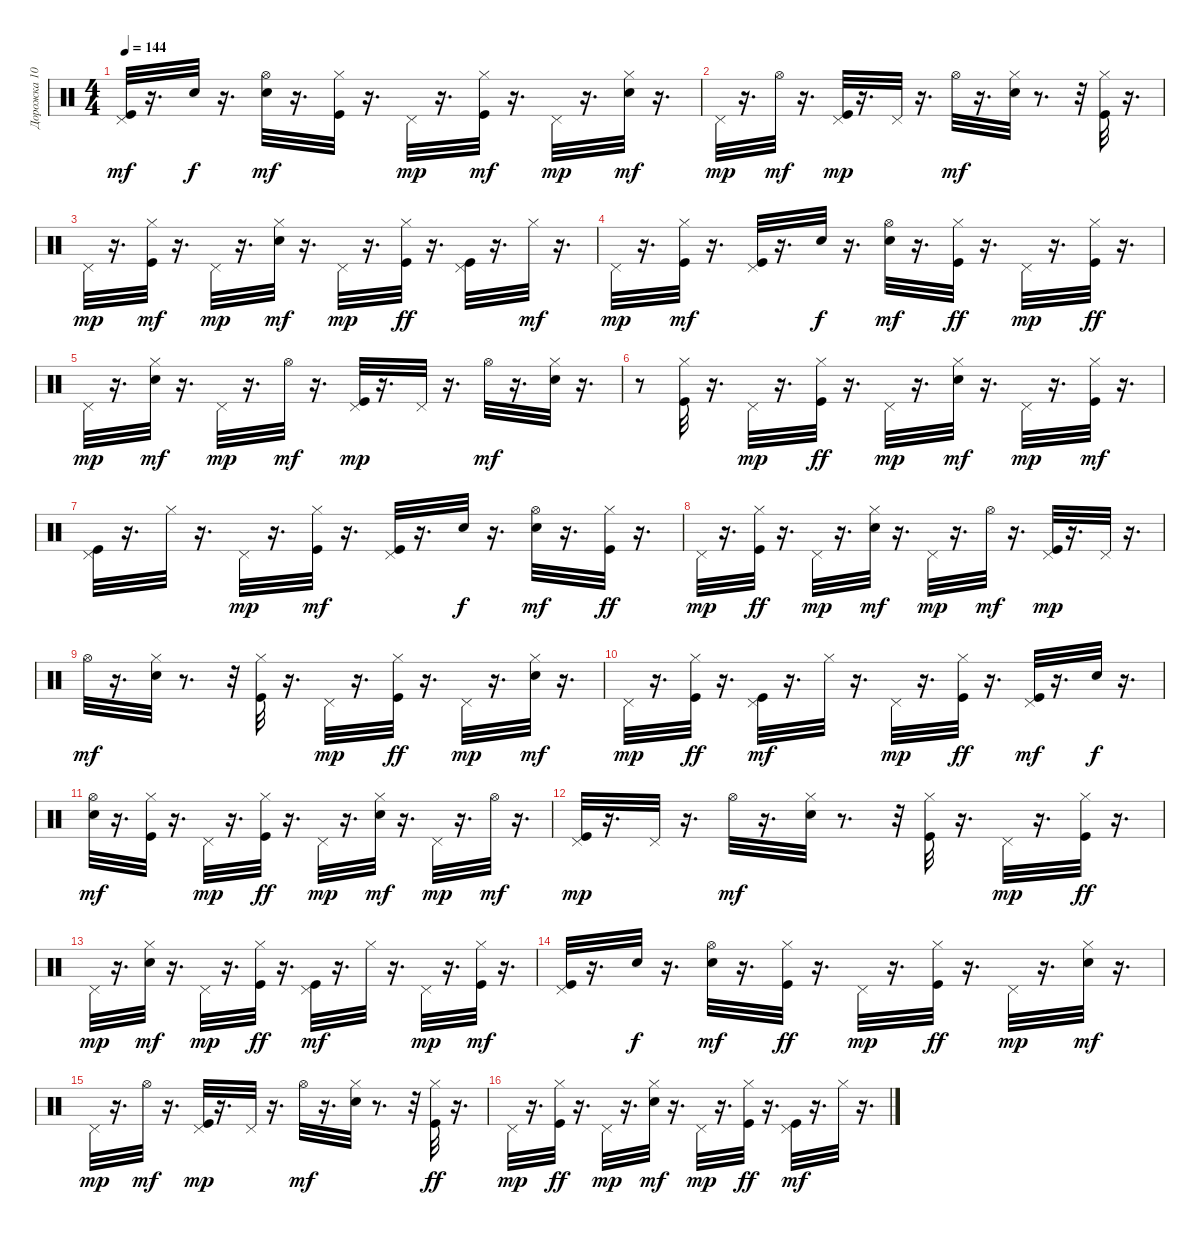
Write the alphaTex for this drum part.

\track ("Дорожка 10" "Дорожка 10") {instrument percussion}
\staff {score}
\articulation defaults
\ts (4 4)
\tempo 144
\clef neutral
\ks c
("Kick (hit)" "Pedal Hi-Hat (hit)").32{dy mf} r.16{d} "Electric Snare (hit)".32{dy f} r.16{d} ("Electric Snare (hit)" "Hi-Hat (open)").32{dy mf} r.16{d} ("Kick (hit)" "Hi-Hat (closed)").32 r.16{d} "Pedal Hi-Hat (hit)".32{dy mp} r.16{d} ("Kick (hit)" "Hi-Hat (closed)").32{dy mf} r.16{d} "Pedal Hi-Hat (hit)".32{dy mp} r.16{d} ("Hi-Hat (closed)" "Electric Snare (hit)").32{dy mf} r.16{d} |
"Pedal Hi-Hat (hit)".32{dy mp} r.16{d} "Hi-Hat (open)".32{dy mf} r.16{d} ("Kick (hit)" "Pedal Hi-Hat (hit)").32{dy mp} r.16{d} "Pedal Hi-Hat (hit)".32 r.16{d} "Hi-Hat (open)".32{dy mf} r.16{d} ("Hi-Hat (closed)" "Electric Snare (hit)").32 r.8{d} r.32 ("Kick (hit)" "Hi-Hat (closed)").32 r.16{d} |
"Pedal Hi-Hat (hit)".32{dy mp} r.16{d} ("Kick (hit)" "Hi-Hat (closed)").32{dy mf} r.16{d} "Pedal Hi-Hat (hit)".32{dy mp} r.16{d} ("Hi-Hat (closed)" "Electric Snare (hit)").32{dy mf} r.16{d} "Pedal Hi-Hat (hit)".32{dy mp} r.16{d} ("Hi-Hat (closed)" "Kick (hit)").32{dy ff} r.16{d} ("Pedal Hi-Hat (hit)" "Kick (hit)").32 r.16{d} "Hi-Hat (closed)".32{dy mf} r.16{d} |
"Pedal Hi-Hat (hit)".32{dy mp} r.16{d} ("Kick (hit)" "Hi-Hat (closed)").32{dy mf} r.16{d} ("Kick (hit)" "Pedal Hi-Hat (hit)").32 r.16{d} "Electric Snare (hit)".32{dy f} r.16{d} ("Electric Snare (hit)" "Hi-Hat (open)").32{dy mf} r.16{d} ("Hi-Hat (closed)" "Kick (hit)").32{dy ff} r.16{d} "Pedal Hi-Hat (hit)".32{dy mp} r.16{d} ("Hi-Hat (closed)" "Kick (hit)").32{dy ff} r.16{d} |
"Pedal Hi-Hat (hit)".32{dy mp} r.16{d} ("Hi-Hat (closed)" "Electric Snare (hit)").32{dy mf} r.16{d} "Pedal Hi-Hat (hit)".32{dy mp} r.16{d} "Hi-Hat (open)".32{dy mf} r.16{d} ("Kick (hit)" "Pedal Hi-Hat (hit)").32{dy mp} r.16{d} "Pedal Hi-Hat (hit)".32 r.16{d} "Hi-Hat (open)".32{dy mf} r.16{d} ("Electric Snare (hit)" "Hi-Hat (closed)").32 r.16{d} |
r.8 ("Kick (hit)" "Hi-Hat (closed)").32 r.16{d} "Pedal Hi-Hat (hit)".32{dy mp} r.16{d} ("Hi-Hat (closed)" "Kick (hit)").32{dy ff} r.16{d} "Pedal Hi-Hat (hit)".32{dy mp} r.16{d} ("Electric Snare (hit)" "Hi-Hat (closed)").32{dy mf} r.16{d} "Pedal Hi-Hat (hit)".32{dy mp} r.16{d} ("Kick (hit)" "Hi-Hat (closed)").32{dy mf} r.16{d} |
("Kick (hit)" "Pedal Hi-Hat (hit)").32 r.16{d} "Hi-Hat (closed)".32 r.16{d} "Pedal Hi-Hat (hit)".32{dy mp} r.16{d} ("Kick (hit)" "Hi-Hat (closed)").32{dy mf} r.16{d} ("Kick (hit)" "Pedal Hi-Hat (hit)").32 r.16{d} "Electric Snare (hit)".32{dy f} r.16{d} ("Electric Snare (hit)" "Hi-Hat (open)").32{dy mf} r.16{d} ("Hi-Hat (closed)" "Kick (hit)").32{dy ff} r.16{d} |
"Pedal Hi-Hat (hit)".32{dy mp} r.16{d} ("Hi-Hat (closed)" "Kick (hit)").32{dy ff} r.16{d} "Pedal Hi-Hat (hit)".32{dy mp} r.16{d} ("Electric Snare (hit)" "Hi-Hat (closed)").32{dy mf} r.16{d} "Pedal Hi-Hat (hit)".32{dy mp} r.16{d} "Hi-Hat (open)".32{dy mf} r.16{d} ("Kick (hit)" "Pedal Hi-Hat (hit)").32{dy mp} r.16{d} "Pedal Hi-Hat (hit)".32 r.16{d} |
"Hi-Hat (open)".32{dy mf} r.16{d} ("Electric Snare (hit)" "Hi-Hat (closed)").32 r.8{d} r.32 ("Kick (hit)" "Hi-Hat (closed)").32 r.16{d} "Pedal Hi-Hat (hit)".32{dy mp} r.16{d} ("Hi-Hat (closed)" "Kick (hit)").32{dy ff} r.16{d} "Pedal Hi-Hat (hit)".32{dy mp} r.16{d} ("Hi-Hat (closed)" "Electric Snare (hit)").32{dy mf} r.16{d} |
"Pedal Hi-Hat (hit)".32{dy mp} r.16{d} ("Hi-Hat (closed)" "Kick (hit)").32{dy ff} r.16{d} ("Kick (hit)" "Pedal Hi-Hat (hit)").32{dy mf} r.16{d} "Hi-Hat (closed)".32 r.16{d} "Pedal Hi-Hat (hit)".32{dy mp} r.16{d} ("Hi-Hat (closed)" "Kick (hit)").32{dy ff} r.16{d} ("Kick (hit)" "Pedal Hi-Hat (hit)").32{dy mf} r.16{d} "Electric Snare (hit)".32{dy f} r.16{d} |
("Electric Snare (hit)" "Hi-Hat (open)").32{dy mf} r.16{d} ("Kick (hit)" "Hi-Hat (closed)").32 r.16{d} "Pedal Hi-Hat (hit)".32{dy mp} r.16{d} ("Hi-Hat (closed)" "Kick (hit)").32{dy ff} r.16{d} "Pedal Hi-Hat (hit)".32{dy mp} r.16{d} ("Hi-Hat (closed)" "Electric Snare (hit)").32{dy mf} r.16{d} "Pedal Hi-Hat (hit)".32{dy mp} r.16{d} "Hi-Hat (open)".32{dy mf} r.16{d} |
("Kick (hit)" "Pedal Hi-Hat (hit)").32{dy mp} r.16{d} "Pedal Hi-Hat (hit)".32 r.16{d} "Hi-Hat (open)".32{dy mf} r.16{d} ("Hi-Hat (closed)" "Electric Snare (hit)").32 r.8{d} r.32 ("Kick (hit)" "Hi-Hat (closed)").32 r.16{d} "Pedal Hi-Hat (hit)".32{dy mp} r.16{d} ("Hi-Hat (closed)" "Kick (hit)").32{dy ff} r.16{d} |
"Pedal Hi-Hat (hit)".32{dy mp} r.16{d} ("Hi-Hat (closed)" "Electric Snare (hit)").32{dy mf} r.16{d} "Pedal Hi-Hat (hit)".32{dy mp} r.16{d} ("Hi-Hat (closed)" "Kick (hit)").32{dy ff} r.16{d} ("Kick (hit)" "Pedal Hi-Hat (hit)").32{dy mf} r.16{d} "Hi-Hat (closed)".32 r.16{d} "Pedal Hi-Hat (hit)".32{dy mp} r.16{d} ("Kick (hit)" "Hi-Hat (closed)").32{dy mf} r.16{d} |
("Kick (hit)" "Pedal Hi-Hat (hit)").32 r.16{d} "Electric Snare (hit)".32{dy f} r.16{d} ("Hi-Hat (open)" "Electric Snare (hit)").32{dy mf} r.16{d} ("Hi-Hat (closed)" "Kick (hit)").32{dy ff} r.16{d} "Pedal Hi-Hat (hit)".32{dy mp} r.16{d} ("Hi-Hat (closed)" "Kick (hit)").32{dy ff} r.16{d} "Pedal Hi-Hat (hit)".32{dy mp} r.16{d} ("Hi-Hat (closed)" "Electric Snare (hit)").32{dy mf} r.16{d} |
"Pedal Hi-Hat (hit)".32{dy mp} r.16{d} "Hi-Hat (open)".32{dy mf} r.16{d} ("Kick (hit)" "Pedal Hi-Hat (hit)").32{dy mp} r.16{d} "Pedal Hi-Hat (hit)".32 r.16{d} "Hi-Hat (open)".32{dy mf} r.16{d} ("Electric Snare (hit)" "Hi-Hat (closed)").32 r.8{d} r.32 ("Hi-Hat (closed)" "Kick (hit)").32{dy ff} r.16{d} |
"Pedal Hi-Hat (hit)".32{dy mp} r.16{d} ("Hi-Hat (closed)" "Kick (hit)").32{dy ff} r.16{d} "Pedal Hi-Hat (hit)".32{dy mp} r.16{d} ("Electric Snare (hit)" "Hi-Hat (closed)").32{dy mf} r.16{d} "Pedal Hi-Hat (hit)".32{dy mp} r.16{d} ("Hi-Hat (closed)" "Kick (hit)").32{dy ff} r.16{d} ("Kick (hit)" "Pedal Hi-Hat (hit)").32{dy mf} r.16{d} "Hi-Hat (closed)".32 r.16{d}
